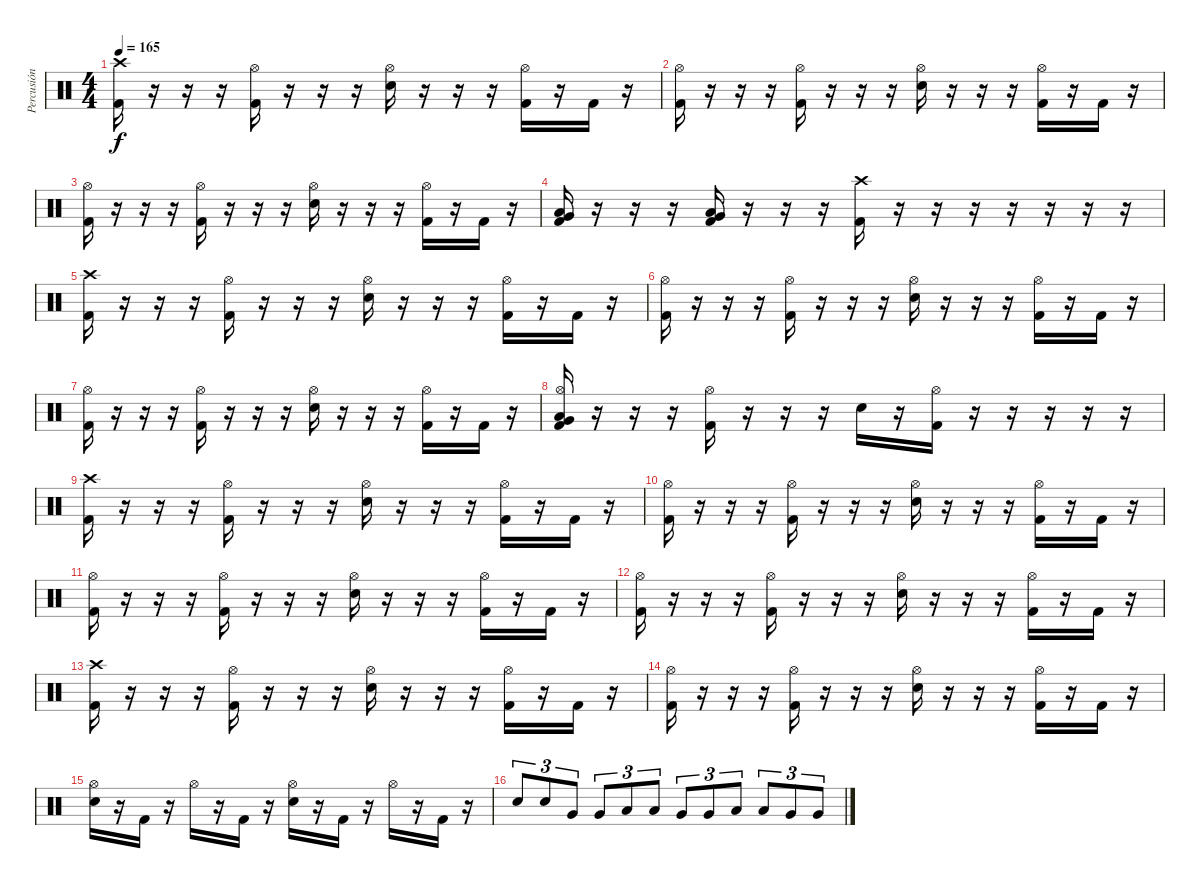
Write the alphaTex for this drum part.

\track ("Percusión" "Percusión") {instrument percussion}
\staff {score}
\articulation defaults
\ts (4 4)
\tempo 165
\clef neutral
\ks c
("Crash high (hit)" "Kick (hit) 2").16{dy f} r.16 r.16 r.16 ("Hi-Hat (open)" "Kick (hit) 2").16 r.16 r.16 r.16 ("Hi-Hat (open)" "Electric Snare (hit)").16 r.16 r.16 r.16 ("Hi-Hat (open)" "Kick (hit) 2").16 r.16 "Kick (hit) 2".16 r.16 |
("Hi-Hat (open)" "Kick (hit) 2").16 r.16 r.16 r.16 ("Hi-Hat (open)" "Kick (hit) 2").16 r.16 r.16 r.16 ("Hi-Hat (open)" "Electric Snare (hit)").16 r.16 r.16 r.16 ("Hi-Hat (open)" "Kick (hit) 2").16 r.16 "Kick (hit) 2".16 r.16 |
("Hi-Hat (open)" "Kick (hit) 2").16 r.16 r.16 r.16 ("Hi-Hat (open)" "Kick (hit) 2").16 r.16 r.16 r.16 ("Hi-Hat (open)" "Electric Snare (hit)").16 r.16 r.16 r.16 ("Hi-Hat (open)" "Kick (hit) 2").16 r.16 "Kick (hit) 2".16 r.16 |
("Low Floor Tom (hit)" "Very Low Tom (hit)" "Kick (hit) 2").16 r.16 r.16 r.16 ("Low Floor Tom (hit)" "Very Low Tom (hit)" "Kick (hit) 2").16 r.16 r.16 r.16 ("Crash high (hit)" "Kick (hit) 2").16 r.16 r.16 r.16 r.16 r.16 r.16 r.16 |
("Crash high (hit)" "Kick (hit) 2").16 r.16 r.16 r.16 ("Hi-Hat (open)" "Kick (hit) 2").16 r.16 r.16 r.16 ("Hi-Hat (open)" "Electric Snare (hit)").16 r.16 r.16 r.16 ("Hi-Hat (open)" "Kick (hit) 2").16 r.16 "Kick (hit) 2".16 r.16 |
("Hi-Hat (open)" "Kick (hit) 2").16 r.16 r.16 r.16 ("Hi-Hat (open)" "Kick (hit) 2").16 r.16 r.16 r.16 ("Hi-Hat (open)" "Electric Snare (hit)").16 r.16 r.16 r.16 ("Hi-Hat (open)" "Kick (hit) 2").16 r.16 "Kick (hit) 2".16 r.16 |
("Hi-Hat (open)" "Kick (hit) 2").16 r.16 r.16 r.16 ("Hi-Hat (open)" "Kick (hit) 2").16 r.16 r.16 r.16 ("Hi-Hat (open)" "Electric Snare (hit)").16 r.16 r.16 r.16 ("Hi-Hat (open)" "Kick (hit) 2").16 r.16 "Kick (hit) 2".16 r.16 |
("Hi-Hat (open)" "Low Floor Tom (hit)" "Very Low Tom (hit)" "Kick (hit) 2").16 r.16 r.16 r.16 ("Hi-Hat (open)" "Kick (hit) 2").16 r.16 r.16 r.16 "Electric Snare (hit)".16 r.16 ("Hi-Hat (open)" "Kick (hit) 2").16 r.16 r.16 r.16 r.16 r.16 |
("Crash high (hit)" "Kick (hit) 2").16 r.16 r.16 r.16 ("Hi-Hat (open)" "Kick (hit) 2").16 r.16 r.16 r.16 ("Hi-Hat (open)" "Electric Snare (hit)").16 r.16 r.16 r.16 ("Hi-Hat (open)" "Kick (hit) 2").16 r.16 "Kick (hit) 2".16 r.16 |
("Hi-Hat (open)" "Kick (hit) 2").16 r.16 r.16 r.16 ("Hi-Hat (open)" "Kick (hit) 2").16 r.16 r.16 r.16 ("Hi-Hat (open)" "Electric Snare (hit)").16 r.16 r.16 r.16 ("Hi-Hat (open)" "Kick (hit) 2").16 r.16 "Kick (hit) 2".16 r.16 |
("Hi-Hat (open)" "Kick (hit) 2").16 r.16 r.16 r.16 ("Hi-Hat (open)" "Kick (hit) 2").16 r.16 r.16 r.16 ("Hi-Hat (open)" "Electric Snare (hit)").16 r.16 r.16 r.16 ("Hi-Hat (open)" "Kick (hit) 2").16 r.16 "Kick (hit) 2".16 r.16 |
("Hi-Hat (open)" "Kick (hit) 2").16 r.16 r.16 r.16 ("Hi-Hat (open)" "Kick (hit) 2").16 r.16 r.16 r.16 ("Hi-Hat (open)" "Electric Snare (hit)").16 r.16 r.16 r.16 ("Hi-Hat (open)" "Kick (hit) 2").16 r.16 "Kick (hit) 2".16 r.16 |
("Crash high (hit)" "Kick (hit) 2").16 r.16 r.16 r.16 ("Hi-Hat (open)" "Kick (hit) 2").16 r.16 r.16 r.16 ("Hi-Hat (open)" "Electric Snare (hit)").16 r.16 r.16 r.16 ("Hi-Hat (open)" "Kick (hit) 2").16 r.16 "Kick (hit) 2".16 r.16 |
("Hi-Hat (open)" "Kick (hit) 2").16 r.16 r.16 r.16 ("Hi-Hat (open)" "Kick (hit) 2").16 r.16 r.16 r.16 ("Hi-Hat (open)" "Electric Snare (hit)").16 r.16 r.16 r.16 ("Hi-Hat (open)" "Kick (hit) 2").16 r.16 "Kick (hit) 2".16 r.16 |
("Hi-Hat (open)" "Electric Snare (hit)").16 r.16 "Kick (hit) 2".16 r.16 "Hi-Hat (open)".16 r.16 "Kick (hit) 2".16 r.16 ("Hi-Hat (open)" "Electric Snare (hit)").16 r.16 "Kick (hit) 2".16 r.16 "Hi-Hat (open)".16 r.16 "Kick (hit) 2".16 r.16 |
"Electric Snare (hit)".8{tu (3 2)} "Electric Snare (hit)".8{tu (3 2)} "Very Low Tom (hit)".8{tu (3 2)} "Very Low Tom (hit)".8{tu (3 2)} "Low Floor Tom (hit)".8{tu (3 2)} "Low Floor Tom (hit)".8{tu (3 2)} "Very Low Tom (hit)".8{tu (3 2)} "Very Low Tom (hit)".8{tu (3 2)} "Low Tom (hit)".8{tu (3 2)} "Low Tom (hit)".8{tu (3 2)} "Very Low Tom (hit)".8{tu (3 2)} "Very Low Tom (hit)".8{tu (3 2)}
